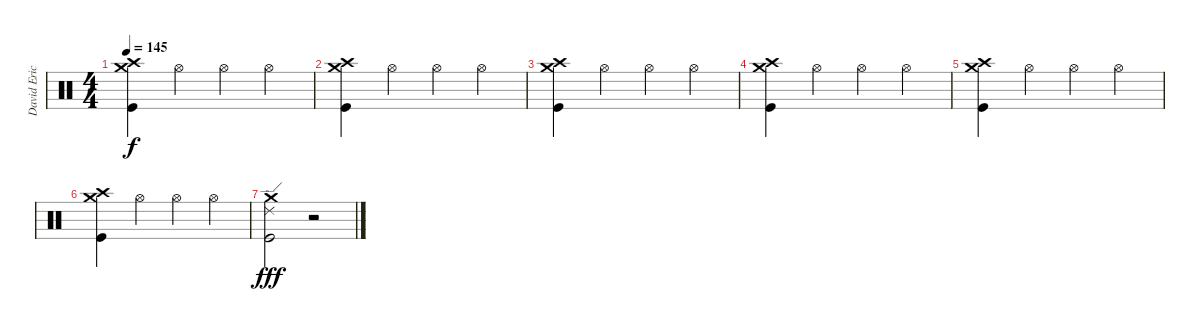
\track ("David Eric Grohl" "David Eric") {instrument percussion}
\staff {score}
\articulation defaults
\ts (4 4)
\tempo 145
\clef neutral
\ks c
("Crash medium (hit)" "Crash high (hit)" "Kick (hit)").4{dy f} "Hi-Hat (open)".4 "Hi-Hat (open)".4 "Hi-Hat (open)".4 |
("Crash medium (hit)" "Crash high (hit)" "Kick (hit)").4 "Hi-Hat (open)".4 "Hi-Hat (open)".4 "Hi-Hat (open)".4 |
("Crash medium (hit)" "Crash high (hit)" "Kick (hit)").4 "Hi-Hat (open)".4 "Hi-Hat (open)".4 "Hi-Hat (open)".4 |
("Crash medium (hit)" "Crash high (hit)" "Kick (hit)").4 "Hi-Hat (open)".4 "Hi-Hat (open)".4 "Hi-Hat (open)".4 |
("Crash medium (hit)" "Crash high (hit)" "Kick (hit)").4 "Hi-Hat (open)".4 "Hi-Hat (open)".4 "Hi-Hat (open)".4 |
("Crash medium (hit)" "Crash high (hit)" "Kick (hit)").4 "Hi-Hat (open)".4 "Hi-Hat (open)".4 "Hi-Hat (open)".4 |
("Ride (edge) 2" "Crash medium (hit)" "Kick (hit)").2{dy fff} r.2
